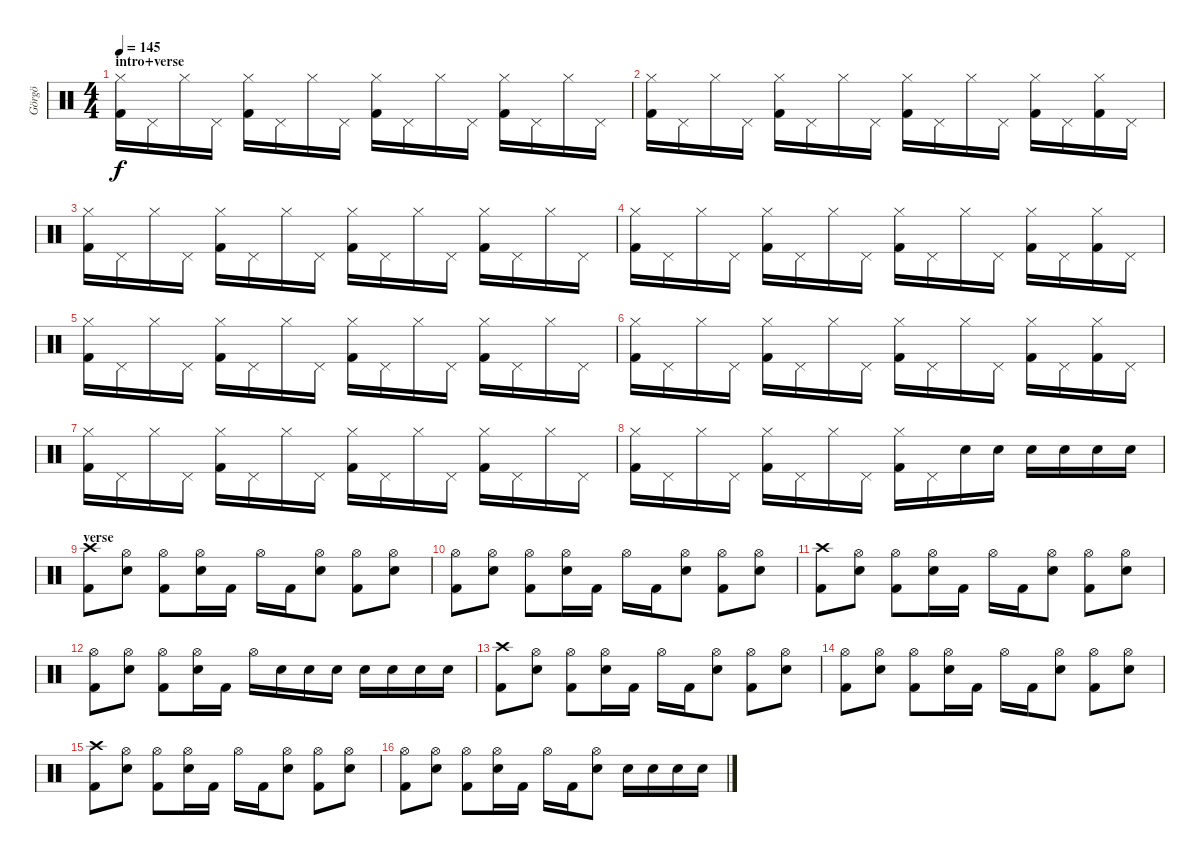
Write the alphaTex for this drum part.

\track ("Görgö" "Görgö") {instrument percussion}
\staff {score}
\articulation defaults
\ts (4 4)
\section ("" "intro+verse")
\tempo 145
\clef neutral
\ks c
("Hi-Hat (closed)" "Kick (hit) 2").16{dy f} "Pedal Hi-Hat (hit)".16 "Hi-Hat (closed)".16 "Pedal Hi-Hat (hit)".16 ("Hi-Hat (closed)" "Kick (hit) 2").16 "Pedal Hi-Hat (hit)".16 "Hi-Hat (closed)".16 "Pedal Hi-Hat (hit)".16 ("Hi-Hat (closed)" "Kick (hit) 2").16 "Pedal Hi-Hat (hit)".16 "Hi-Hat (closed)".16 "Pedal Hi-Hat (hit)".16 ("Hi-Hat (closed)" "Kick (hit) 2").16 "Pedal Hi-Hat (hit)".16 "Hi-Hat (closed)".16 "Pedal Hi-Hat (hit)".16 |
("Hi-Hat (closed)" "Kick (hit) 2").16 "Pedal Hi-Hat (hit)".16 "Hi-Hat (closed)".16 "Pedal Hi-Hat (hit)".16 ("Hi-Hat (closed)" "Kick (hit) 2").16 "Pedal Hi-Hat (hit)".16 "Hi-Hat (closed)".16 "Pedal Hi-Hat (hit)".16 ("Hi-Hat (closed)" "Kick (hit) 2").16 "Pedal Hi-Hat (hit)".16 "Hi-Hat (closed)".16 "Pedal Hi-Hat (hit)".16 ("Hi-Hat (closed)" "Kick (hit) 2").16 "Pedal Hi-Hat (hit)".16 ("Hi-Hat (closed)" "Kick (hit) 2").16 "Pedal Hi-Hat (hit)".16 |
("Hi-Hat (closed)" "Kick (hit) 2").16 "Pedal Hi-Hat (hit)".16 "Hi-Hat (closed)".16 "Pedal Hi-Hat (hit)".16 ("Hi-Hat (closed)" "Kick (hit) 2").16 "Pedal Hi-Hat (hit)".16 "Hi-Hat (closed)".16 "Pedal Hi-Hat (hit)".16 ("Hi-Hat (closed)" "Kick (hit) 2").16 "Pedal Hi-Hat (hit)".16 "Hi-Hat (closed)".16 "Pedal Hi-Hat (hit)".16 ("Hi-Hat (closed)" "Kick (hit) 2").16 "Pedal Hi-Hat (hit)".16 "Hi-Hat (closed)".16 "Pedal Hi-Hat (hit)".16 |
("Hi-Hat (closed)" "Kick (hit) 2").16 "Pedal Hi-Hat (hit)".16 "Hi-Hat (closed)".16 "Pedal Hi-Hat (hit)".16 ("Hi-Hat (closed)" "Kick (hit) 2").16 "Pedal Hi-Hat (hit)".16 "Hi-Hat (closed)".16 "Pedal Hi-Hat (hit)".16 ("Hi-Hat (closed)" "Kick (hit) 2").16 "Pedal Hi-Hat (hit)".16 "Hi-Hat (closed)".16 "Pedal Hi-Hat (hit)".16 ("Hi-Hat (closed)" "Kick (hit) 2").16 "Pedal Hi-Hat (hit)".16 ("Hi-Hat (closed)" "Kick (hit) 2").16 "Pedal Hi-Hat (hit)".16 |
("Hi-Hat (closed)" "Kick (hit) 2").16 "Pedal Hi-Hat (hit)".16 "Hi-Hat (closed)".16 "Pedal Hi-Hat (hit)".16 ("Hi-Hat (closed)" "Kick (hit) 2").16 "Pedal Hi-Hat (hit)".16 "Hi-Hat (closed)".16 "Pedal Hi-Hat (hit)".16 ("Hi-Hat (closed)" "Kick (hit) 2").16 "Pedal Hi-Hat (hit)".16 "Hi-Hat (closed)".16 "Pedal Hi-Hat (hit)".16 ("Hi-Hat (closed)" "Kick (hit) 2").16 "Pedal Hi-Hat (hit)".16 "Hi-Hat (closed)".16 "Pedal Hi-Hat (hit)".16 |
("Hi-Hat (closed)" "Kick (hit) 2").16 "Pedal Hi-Hat (hit)".16 "Hi-Hat (closed)".16 "Pedal Hi-Hat (hit)".16 ("Hi-Hat (closed)" "Kick (hit) 2").16 "Pedal Hi-Hat (hit)".16 "Hi-Hat (closed)".16 "Pedal Hi-Hat (hit)".16 ("Hi-Hat (closed)" "Kick (hit) 2").16 "Pedal Hi-Hat (hit)".16 "Hi-Hat (closed)".16 "Pedal Hi-Hat (hit)".16 ("Hi-Hat (closed)" "Kick (hit) 2").16 "Pedal Hi-Hat (hit)".16 ("Hi-Hat (closed)" "Kick (hit) 2").16 "Pedal Hi-Hat (hit)".16 |
("Hi-Hat (closed)" "Kick (hit) 2").16 "Pedal Hi-Hat (hit)".16 "Hi-Hat (closed)".16 "Pedal Hi-Hat (hit)".16 ("Hi-Hat (closed)" "Kick (hit) 2").16 "Pedal Hi-Hat (hit)".16 "Hi-Hat (closed)".16 "Pedal Hi-Hat (hit)".16 ("Hi-Hat (closed)" "Kick (hit) 2").16 "Pedal Hi-Hat (hit)".16 "Hi-Hat (closed)".16 "Pedal Hi-Hat (hit)".16 ("Hi-Hat (closed)" "Kick (hit) 2").16 "Pedal Hi-Hat (hit)".16 "Hi-Hat (closed)".16 "Pedal Hi-Hat (hit)".16 |
("Hi-Hat (closed)" "Kick (hit) 2").16 "Pedal Hi-Hat (hit)".16 "Hi-Hat (closed)".16 "Pedal Hi-Hat (hit)".16 ("Hi-Hat (closed)" "Kick (hit) 2").16 "Pedal Hi-Hat (hit)".16 "Hi-Hat (closed)".16 "Pedal Hi-Hat (hit)".16 ("Hi-Hat (closed)" "Kick (hit) 2").16 "Pedal Hi-Hat (hit)".16 "Snare (hit) 2".16 "Snare (hit) 2".16 "Snare (hit) 2".16 "Snare (hit) 2".16 "Snare (hit) 2".16 "Snare (hit) 2".16 |
\section ("" "verse")
("Crash high (hit)" "Kick (hit) 2").8 ("Hi-Hat (open)" "Snare (hit) 2").8 ("Hi-Hat (open)" "Kick (hit) 2").8 ("Hi-Hat (open)" "Snare (hit) 2").16 "Kick (hit) 2".16 "Hi-Hat (open)".16 "Kick (hit) 2".16 ("Hi-Hat (open)" "Snare (hit) 2").8 ("Hi-Hat (open)" "Kick (hit) 2").8 ("Hi-Hat (open)" "Snare (hit) 2").8 |
("Hi-Hat (open)" "Kick (hit) 2").8 ("Hi-Hat (open)" "Snare (hit) 2").8 ("Hi-Hat (open)" "Kick (hit) 2").8 ("Hi-Hat (open)" "Snare (hit) 2").16 "Kick (hit) 2".16 "Hi-Hat (open)".16 "Kick (hit) 2".16 ("Hi-Hat (open)" "Snare (hit) 2").8 ("Hi-Hat (open)" "Kick (hit) 2").8 ("Hi-Hat (open)" "Snare (hit) 2").8 |
("Crash high (hit)" "Kick (hit) 2").8 ("Hi-Hat (open)" "Snare (hit) 2").8 ("Hi-Hat (open)" "Kick (hit) 2").8 ("Hi-Hat (open)" "Snare (hit) 2").16 "Kick (hit) 2".16 "Hi-Hat (open)".16 "Kick (hit) 2".16 ("Hi-Hat (open)" "Snare (hit) 2").8 ("Hi-Hat (open)" "Kick (hit) 2").8 ("Hi-Hat (open)" "Snare (hit) 2").8 |
("Hi-Hat (open)" "Kick (hit) 2").8 ("Hi-Hat (open)" "Snare (hit) 2").8 ("Hi-Hat (open)" "Kick (hit) 2").8 ("Hi-Hat (open)" "Snare (hit) 2").16 "Kick (hit) 2".16 "Hi-Hat (open)".16 "Snare (hit) 2".16 "Snare (hit) 2".16 "Snare (hit) 2".16 "Snare (hit) 2".16 "Snare (hit) 2".16 "Snare (hit) 2".16 "Snare (hit) 2".16 |
("Crash high (hit)" "Kick (hit) 2").8 ("Hi-Hat (open)" "Snare (hit) 2").8 ("Hi-Hat (open)" "Kick (hit) 2").8 ("Hi-Hat (open)" "Snare (hit) 2").16 "Kick (hit) 2".16 "Hi-Hat (open)".16 "Kick (hit) 2".16 ("Hi-Hat (open)" "Snare (hit) 2").8 ("Hi-Hat (open)" "Kick (hit) 2").8 ("Hi-Hat (open)" "Snare (hit) 2").8 |
("Hi-Hat (open)" "Kick (hit) 2").8 ("Hi-Hat (open)" "Snare (hit) 2").8 ("Hi-Hat (open)" "Kick (hit) 2").8 ("Hi-Hat (open)" "Snare (hit) 2").16 "Kick (hit) 2".16 "Hi-Hat (open)".16 "Kick (hit) 2".16 ("Hi-Hat (open)" "Snare (hit) 2").8 ("Hi-Hat (open)" "Kick (hit) 2").8 ("Hi-Hat (open)" "Snare (hit) 2").8 |
("Crash high (hit)" "Kick (hit) 2").8 ("Hi-Hat (open)" "Snare (hit) 2").8 ("Hi-Hat (open)" "Kick (hit) 2").8 ("Hi-Hat (open)" "Snare (hit) 2").16 "Kick (hit) 2".16 "Hi-Hat (open)".16 "Kick (hit) 2".16 ("Hi-Hat (open)" "Snare (hit) 2").8 ("Hi-Hat (open)" "Kick (hit) 2").8 ("Hi-Hat (open)" "Snare (hit) 2").8 |
("Hi-Hat (open)" "Kick (hit) 2").8 ("Hi-Hat (open)" "Snare (hit) 2").8 ("Hi-Hat (open)" "Kick (hit) 2").8 ("Hi-Hat (open)" "Snare (hit) 2").16 "Kick (hit) 2".16 "Hi-Hat (open)".16 "Kick (hit) 2".16 ("Hi-Hat (open)" "Snare (hit) 2").8 "Snare (hit) 2".16 "Snare (hit) 2".16 "Snare (hit) 2".16 "Snare (hit) 2".16
